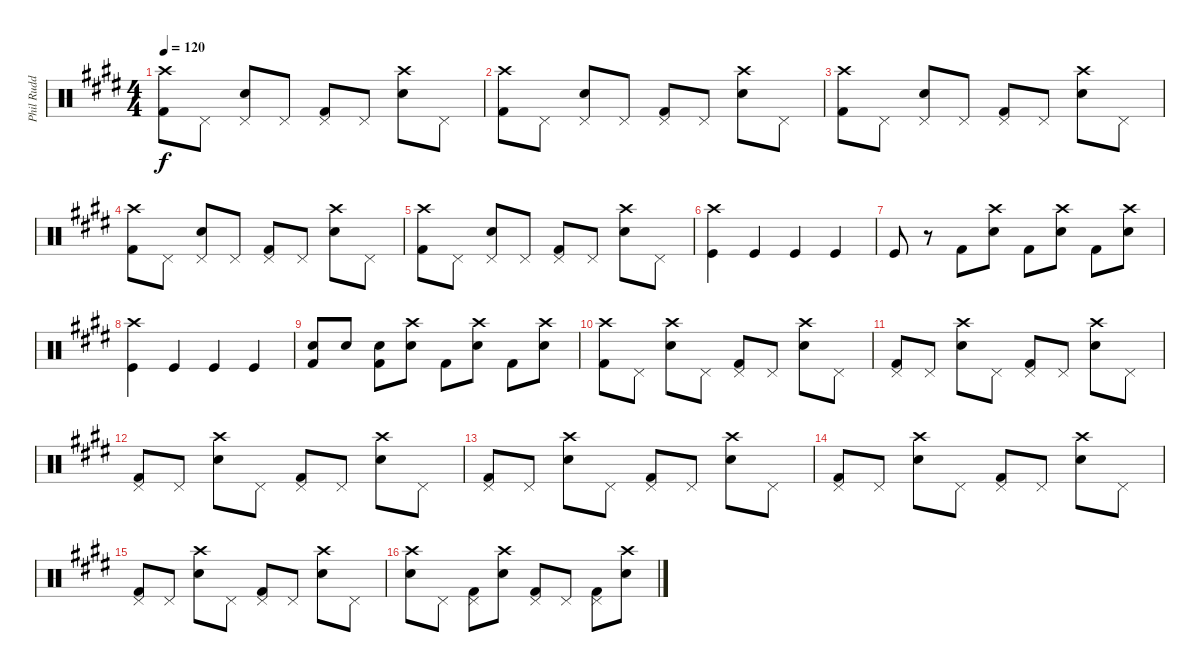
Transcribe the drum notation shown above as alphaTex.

\track ("Phil Rudd (Drums)" "Phil Rudd ") {instrument percussion}
\staff {score}
\articulation defaults
\ts (4 4)
\tempo 120
\clef neutral
\ks e
("Crash high (hit)" "Kick (hit) 2").8{dy f} "Pedal Hi-Hat (hit)".8 ("Pedal Hi-Hat (hit)" "Snare (hit) 2").8 "Pedal Hi-Hat (hit)".8 ("Pedal Hi-Hat (hit)" "Kick (hit) 2").8 "Pedal Hi-Hat (hit)".8 ("Crash high (hit)" "Snare (hit) 2").8 "Pedal Hi-Hat (hit)".8 |
("Crash high (hit)" "Kick (hit) 2").8 "Pedal Hi-Hat (hit)".8 ("Pedal Hi-Hat (hit)" "Snare (hit) 2").8 "Pedal Hi-Hat (hit)".8 ("Pedal Hi-Hat (hit)" "Kick (hit) 2").8 "Pedal Hi-Hat (hit)".8 ("Crash high (hit)" "Snare (hit) 2").8 "Pedal Hi-Hat (hit)".8 |
("Crash high (hit)" "Kick (hit) 2").8 "Pedal Hi-Hat (hit)".8 ("Pedal Hi-Hat (hit)" "Snare (hit) 2").8 "Pedal Hi-Hat (hit)".8 ("Pedal Hi-Hat (hit)" "Kick (hit) 2").8 "Pedal Hi-Hat (hit)".8 ("Crash high (hit)" "Snare (hit) 2").8 "Pedal Hi-Hat (hit)".8 |
("Crash high (hit)" "Kick (hit) 2").8 "Pedal Hi-Hat (hit)".8 ("Pedal Hi-Hat (hit)" "Snare (hit) 2").8 "Pedal Hi-Hat (hit)".8 ("Pedal Hi-Hat (hit)" "Kick (hit) 2").8 "Pedal Hi-Hat (hit)".8 ("Crash high (hit)" "Snare (hit) 2").8 "Pedal Hi-Hat (hit)".8 |
("Crash high (hit)" "Kick (hit) 2").8 "Pedal Hi-Hat (hit)".8 ("Pedal Hi-Hat (hit)" "Snare (hit) 2").8 "Pedal Hi-Hat (hit)".8 ("Pedal Hi-Hat (hit)" "Kick (hit) 2").8 "Pedal Hi-Hat (hit)".8 ("Crash high (hit)" "Snare (hit) 2").8 "Pedal Hi-Hat (hit)".8 |
("Crash high (hit)" "Kick (hit)").4 "Kick (hit)".4 "Kick (hit)".4 "Kick (hit)".4 |
"Kick (hit)".8 r.8 "Kick (hit) 2".8 ("Crash high (hit)" "Snare (hit) 2").8 "Kick (hit) 2".8 ("Crash high (hit)" "Snare (hit) 2").8 "Kick (hit) 2".8 ("Crash high (hit)" "Snare (hit) 2").8 |
("Crash high (hit)" "Kick (hit)").4 "Kick (hit)".4 "Kick (hit)".4 "Kick (hit)".4 |
("Electric Snare (hit)" "Kick (hit) 2").8 "Snare (hit) 2".8 ("Snare (hit) 2" "Kick (hit) 2").8 ("Crash high (hit)" "Snare (hit) 2").8 "Kick (hit) 2".8 ("Crash high (hit)" "Snare (hit) 2").8 "Kick (hit) 2".8 ("Crash high (hit)" "Snare (hit) 2").8 |
("Crash high (hit)" "Kick (hit) 2").8 "Pedal Hi-Hat (hit)".8 ("Crash high (hit)" "Snare (hit) 2").8 "Pedal Hi-Hat (hit)".8 ("Pedal Hi-Hat (hit)" "Kick (hit) 2").8 "Pedal Hi-Hat (hit)".8 ("Crash high (hit)" "Snare (hit) 2").8 "Pedal Hi-Hat (hit)".8 |
("Pedal Hi-Hat (hit)" "Kick (hit) 2").8 "Pedal Hi-Hat (hit)".8 ("Crash high (hit)" "Snare (hit) 2").8 "Pedal Hi-Hat (hit)".8 ("Pedal Hi-Hat (hit)" "Kick (hit) 2").8 "Pedal Hi-Hat (hit)".8 ("Crash high (hit)" "Snare (hit) 2").8 "Pedal Hi-Hat (hit)".8 |
("Pedal Hi-Hat (hit)" "Kick (hit) 2").8 "Pedal Hi-Hat (hit)".8 ("Crash high (hit)" "Snare (hit) 2").8 "Pedal Hi-Hat (hit)".8 ("Pedal Hi-Hat (hit)" "Kick (hit) 2").8 "Pedal Hi-Hat (hit)".8 ("Crash high (hit)" "Snare (hit) 2").8 "Pedal Hi-Hat (hit)".8 |
("Pedal Hi-Hat (hit)" "Kick (hit) 2").8 "Pedal Hi-Hat (hit)".8 ("Crash high (hit)" "Snare (hit) 2").8 "Pedal Hi-Hat (hit)".8 ("Pedal Hi-Hat (hit)" "Kick (hit) 2").8 "Pedal Hi-Hat (hit)".8 ("Crash high (hit)" "Snare (hit) 2").8 "Pedal Hi-Hat (hit)".8 |
("Pedal Hi-Hat (hit)" "Kick (hit) 2").8 "Pedal Hi-Hat (hit)".8 ("Crash high (hit)" "Snare (hit) 2").8 "Pedal Hi-Hat (hit)".8 ("Pedal Hi-Hat (hit)" "Kick (hit) 2").8 "Pedal Hi-Hat (hit)".8 ("Crash high (hit)" "Snare (hit) 2").8 "Pedal Hi-Hat (hit)".8 |
("Pedal Hi-Hat (hit)" "Kick (hit) 2").8 "Pedal Hi-Hat (hit)".8 ("Crash high (hit)" "Snare (hit) 2").8 "Pedal Hi-Hat (hit)".8 ("Pedal Hi-Hat (hit)" "Kick (hit) 2").8 "Pedal Hi-Hat (hit)".8 ("Crash high (hit)" "Snare (hit) 2").8 "Pedal Hi-Hat (hit)".8 |
("Crash high (hit)" "Snare (hit) 2").8 "Pedal Hi-Hat (hit)".8 ("Pedal Hi-Hat (hit)" "Kick (hit) 2").8 ("Crash high (hit)" "Snare (hit) 2").8 ("Pedal Hi-Hat (hit)" "Kick (hit) 2").8 "Pedal Hi-Hat (hit)".8 ("Pedal Hi-Hat (hit)" "Kick (hit) 2").8 ("Crash high (hit)" "Snare (hit) 2").8
